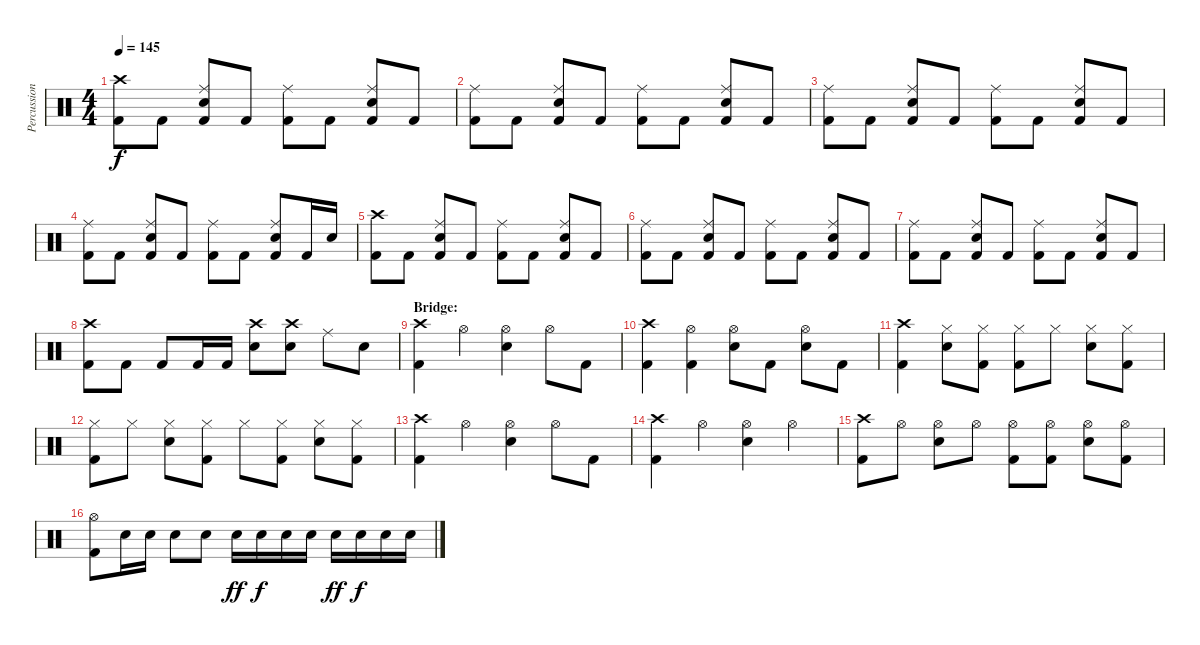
\track ("Percussion" "Percussion") {instrument percussion}
\staff {score}
\articulation defaults
\ts (4 4)
\tempo 145
\clef neutral
\ks c
("Crash high (hit)" "Kick (hit) 2").8{dy f} "Kick (hit) 2".8 ("Ride (middle)" "Electric Snare (hit)" "Kick (hit) 2").8 "Kick (hit) 2".8 ("Ride (middle)" "Kick (hit) 2").8 "Kick (hit) 2".8 ("Ride (middle)" "Electric Snare (hit)" "Kick (hit) 2").8 "Kick (hit) 2".8 |
("Ride (middle)" "Kick (hit) 2").8 "Kick (hit) 2".8 ("Ride (middle)" "Electric Snare (hit)" "Kick (hit) 2").8 "Kick (hit) 2".8 ("Ride (middle)" "Kick (hit) 2").8 "Kick (hit) 2".8 ("Ride (middle)" "Electric Snare (hit)" "Kick (hit) 2").8 "Kick (hit) 2".8 |
("Ride (middle)" "Kick (hit) 2").8 "Kick (hit) 2".8 ("Ride (middle)" "Electric Snare (hit)" "Kick (hit) 2").8 "Kick (hit) 2".8 ("Ride (middle)" "Kick (hit) 2").8 "Kick (hit) 2".8 ("Ride (middle)" "Electric Snare (hit)" "Kick (hit) 2").8 "Kick (hit) 2".8 |
("Ride (middle)" "Kick (hit) 2").8 "Kick (hit) 2".8 ("Ride (middle)" "Electric Snare (hit)" "Kick (hit) 2").8 "Kick (hit) 2".8 ("Ride (middle)" "Kick (hit) 2").8 "Kick (hit) 2".8 ("Ride (middle)" "Electric Snare (hit)" "Kick (hit) 2").8 "Kick (hit) 2".16 "Electric Snare (hit)".16 |
("Crash high (hit)" "Kick (hit) 2").8 "Kick (hit) 2".8 ("Ride (middle)" "Electric Snare (hit)" "Kick (hit) 2").8 "Kick (hit) 2".8 ("Ride (middle)" "Kick (hit) 2").8 "Kick (hit) 2".8 ("Ride (middle)" "Electric Snare (hit)" "Kick (hit) 2").8 "Kick (hit) 2".8 |
("Ride (middle)" "Kick (hit) 2").8 "Kick (hit) 2".8 ("Ride (middle)" "Electric Snare (hit)" "Kick (hit) 2").8 "Kick (hit) 2".8 ("Ride (middle)" "Kick (hit) 2").8 "Kick (hit) 2".8 ("Ride (middle)" "Electric Snare (hit)" "Kick (hit) 2").8 "Kick (hit) 2".8 |
("Ride (middle)" "Kick (hit) 2").8 "Kick (hit) 2".8 ("Ride (middle)" "Electric Snare (hit)" "Kick (hit) 2").8 "Kick (hit) 2".8 ("Ride (middle)" "Kick (hit) 2").8 "Kick (hit) 2".8 ("Ride (middle)" "Electric Snare (hit)" "Kick (hit) 2").8 "Kick (hit) 2".8 |
("Crash high (hit)" "Kick (hit) 2").8 "Kick (hit) 2".8 "Kick (hit) 2".8 "Kick (hit) 2".16 "Kick (hit) 2".16 ("Crash high (hit)" "Electric Snare (hit)").8 ("Crash high (hit)" "Electric Snare (hit)").8 "Ride (middle)".8 "Electric Snare (hit)".8 |
\section ("" "Bridge:")
("Crash high (hit)" "Kick (hit) 2").4 "Hi-Hat (open)".4 ("Hi-Hat (open)" "Electric Snare (hit)").4 "Hi-Hat (open)".8 "Kick (hit) 2".8 |
("Crash high (hit)" "Kick (hit) 2").4 ("Hi-Hat (open)" "Kick (hit) 2").4 ("Hi-Hat (open)" "Electric Snare (hit)").8 "Kick (hit) 2".8 ("Hi-Hat (open)" "Electric Snare (hit)").8 "Kick (hit) 2".8 |
("Crash high (hit)" "Kick (hit) 2").4 ("Hi-Hat (closed)" "Electric Snare (hit)").8 ("Hi-Hat (closed)" "Kick (hit) 2").8 ("Hi-Hat (closed)" "Kick (hit) 2").8 "Hi-Hat (closed)".8 ("Hi-Hat (closed)" "Electric Snare (hit)").8 ("Hi-Hat (closed)" "Kick (hit) 2").8 |
("Hi-Hat (closed)" "Kick (hit) 2").8 "Hi-Hat (closed)".8 ("Hi-Hat (closed)" "Electric Snare (hit)").8 ("Hi-Hat (closed)" "Kick (hit) 2").8 "Hi-Hat (closed)".8 ("Hi-Hat (closed)" "Kick (hit) 2").8 ("Hi-Hat (closed)" "Electric Snare (hit)").8 ("Hi-Hat (closed)" "Kick (hit) 2").8 |
("Crash high (hit)" "Kick (hit) 2").4 "Hi-Hat (open)".4 ("Hi-Hat (open)" "Electric Snare (hit)").4 "Hi-Hat (open)".8 "Kick (hit) 2".8 |
("Crash high (hit)" "Kick (hit) 2").4 "Hi-Hat (open)".4 ("Hi-Hat (open)" "Electric Snare (hit)").4 "Hi-Hat (open)".4 |
("Crash high (hit)" "Kick (hit) 2").8 "Hi-Hat (open)".8 ("Hi-Hat (open)" "Electric Snare (hit)").8 "Hi-Hat (open)".8 ("Hi-Hat (open)" "Kick (hit) 2").8 ("Hi-Hat (open)" "Kick (hit) 2").8 ("Hi-Hat (open)" "Electric Snare (hit)").8 ("Hi-Hat (open)" "Kick (hit) 2").8 |
("Hi-Hat (open)" "Kick (hit) 2").8 "Electric Snare (hit)".16 "Electric Snare (hit)".16 "Electric Snare (hit)".8 "Electric Snare (hit)".8 "Electric Snare (hit)".16{dy ff} "Electric Snare (hit)".16{dy f} "Electric Snare (hit)".16 "Electric Snare (hit)".16 "Electric Snare (hit)".16{dy ff} "Electric Snare (hit)".16{dy f} "Electric Snare (hit)".16 "Electric Snare (hit)".16
